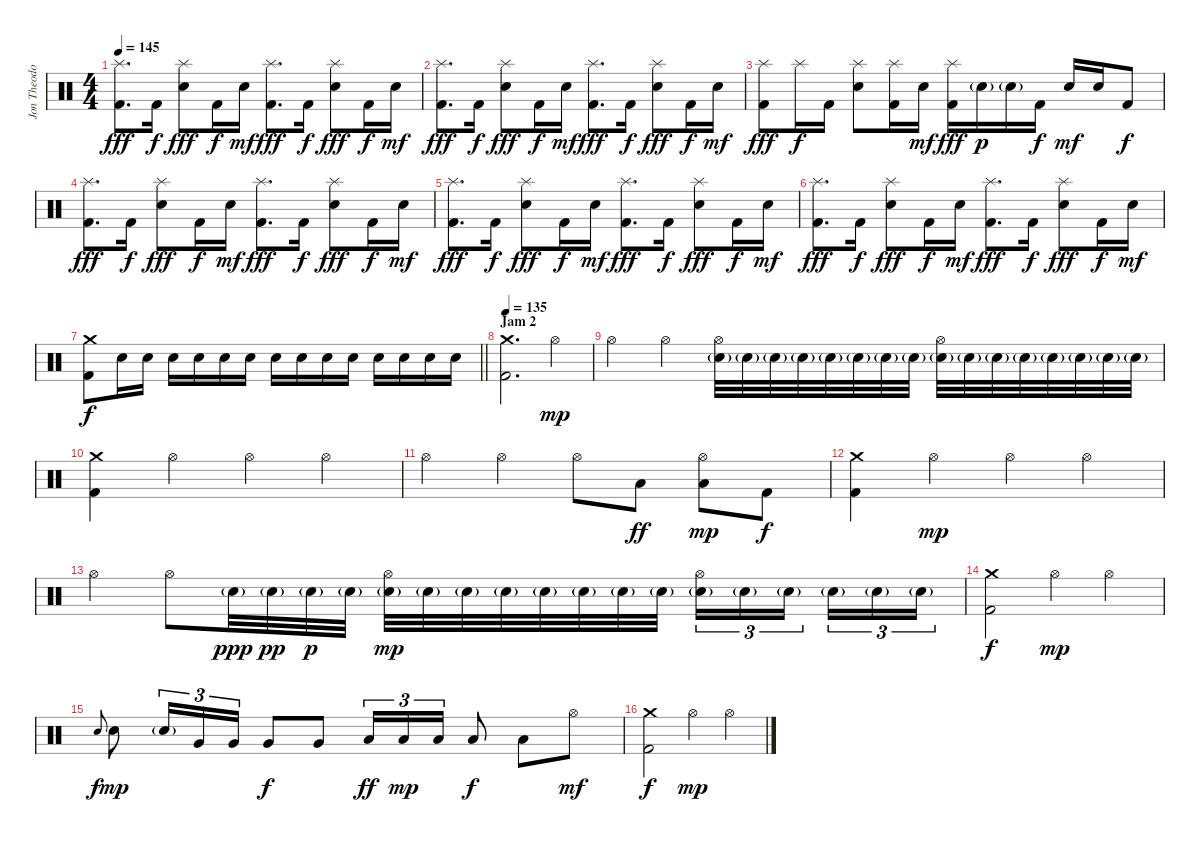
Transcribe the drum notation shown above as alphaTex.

\track ("Jon Theodore - Drums" "Jon Theodo") {instrument percussion}
\staff {score}
\articulation defaults
\ts (4 4)
\tempo 145
\clef neutral
\ks c
("Splash (hit)" "Kick (hit) 2").8{d dy fff} "Kick (hit) 2".16{dy f} ("Splash (hit)" "Electric Snare (hit)").8{dy fff} "Kick (hit) 2".16{dy f} "Electric Snare (hit)".16{dy mf} ("Splash (hit)" "Kick (hit) 2").8{d dy fff} "Kick (hit) 2".16{dy f} ("Splash (hit)" "Electric Snare (hit)").8{dy fff} "Kick (hit) 2".16{dy f} "Electric Snare (hit)".16{dy mf} |
("Splash (hit)" "Kick (hit) 2").8{d dy fff} "Kick (hit) 2".16{dy f} ("Splash (hit)" "Electric Snare (hit)").8{dy fff} "Kick (hit) 2".16{dy f} "Electric Snare (hit)".16{dy mf} ("Splash (hit)" "Kick (hit) 2").8{d dy fff} "Kick (hit) 2".16{dy f} ("Splash (hit)" "Electric Snare (hit)").8{dy fff} "Kick (hit) 2".16{dy f} "Electric Snare (hit)".16{dy mf} |
("Splash (hit)" "Kick (hit) 2").8{dy fff} "Splash (hit)".16{dy f} "Kick (hit) 2".16 ("Splash (hit)" "Electric Snare (hit)").8 ("Splash (hit)" "Kick (hit) 2").16 "Electric Snare (hit)".16{dy mf} ("Splash (hit)" "Kick (hit) 2").16{dy fff} "Electric Snare (hit)"{g}.16{dy p} "Electric Snare (hit)"{g}.16 "Kick (hit) 2".16{dy f} "Electric Snare (hit)".16{dy mf} "Electric Snare (hit)".16 "Kick (hit) 2".8{dy f} |
("Splash (hit)" "Kick (hit) 2").8{d dy fff} "Kick (hit) 2".16{dy f} ("Splash (hit)" "Electric Snare (hit)").8{dy fff} "Kick (hit) 2".16{dy f} "Electric Snare (hit)".16{dy mf} ("Splash (hit)" "Kick (hit) 2").8{d dy fff} "Kick (hit) 2".16{dy f} ("Splash (hit)" "Electric Snare (hit)").8{dy fff} "Kick (hit) 2".16{dy f} "Electric Snare (hit)".16{dy mf} |
("Splash (hit)" "Kick (hit) 2").8{d dy fff} "Kick (hit) 2".16{dy f} ("Splash (hit)" "Electric Snare (hit)").8{dy fff} "Kick (hit) 2".16{dy f} "Electric Snare (hit)".16{dy mf} ("Splash (hit)" "Kick (hit) 2").8{d dy fff} "Kick (hit) 2".16{dy f} ("Splash (hit)" "Electric Snare (hit)").8{dy fff} "Kick (hit) 2".16{dy f} "Electric Snare (hit)".16{dy mf} |
("Splash (hit)" "Kick (hit) 2").8{d dy fff} "Kick (hit) 2".16{dy f} ("Splash (hit)" "Electric Snare (hit)").8{dy fff} "Kick (hit) 2".16{dy f} "Electric Snare (hit)".16{dy mf} ("Splash (hit)" "Kick (hit) 2").8{d dy fff} "Kick (hit) 2".16{dy f} ("Splash (hit)" "Electric Snare (hit)").8{dy fff} "Kick (hit) 2".16{dy f} "Electric Snare (hit)".16{dy mf} |
\barLineRight lightlight
("Crash medium (hit)" "Kick (hit) 2").8{dy f} "Electric Snare (hit)".16 "Electric Snare (hit)".16 "Electric Snare (hit)".16 "Electric Snare (hit)".16 "Electric Snare (hit)".16 "Electric Snare (hit)".16 "Electric Snare (hit)".16 "Electric Snare (hit)".16 "Electric Snare (hit)".16 "Electric Snare (hit)".16 "Electric Snare (hit)".16 "Electric Snare (hit)".16 "Electric Snare (hit)".16 "Electric Snare (hit)".16 |
\section ("" "Jam 2")
\tempo 135
("Crash medium (hit)" "Kick (hit) 2").2{d} "Hi-Hat (open)".4{dy mp} |
"Hi-Hat (open)".4 "Hi-Hat (open)".4 ("Electric Snare (hit)"{g} "Hi-Hat (open)").32 "Electric Snare (hit)"{g}.32 "Electric Snare (hit)"{g}.32 "Electric Snare (hit)"{g}.32 "Electric Snare (hit)"{g}.32 "Electric Snare (hit)"{g}.32 "Electric Snare (hit)"{g}.32 "Electric Snare (hit)"{g}.32 ("Electric Snare (hit)"{g} "Hi-Hat (open)").32 "Electric Snare (hit)"{g}.32 "Electric Snare (hit)"{g}.32 "Electric Snare (hit)"{g}.32 "Electric Snare (hit)"{g}.32 "Electric Snare (hit)"{g}.32 "Electric Snare (hit)"{g}.32 "Electric Snare (hit)"{g}.32 |
("Crash medium (hit)" "Kick (hit) 2").4 "Hi-Hat (open)".4 "Hi-Hat (open)".4 "Hi-Hat (open)".4 |
"Hi-Hat (open)".4 "Hi-Hat (open)".4 "Hi-Hat (open)".8 "Low Tom (hit)".8{dy ff} ("Low Tom (hit)" "Hi-Hat (open)").8{dy mp} "Kick (hit) 2".8{dy f} |
("Crash medium (hit)" "Kick (hit) 2").4 "Hi-Hat (open)".4{dy mp} "Hi-Hat (open)".4 "Hi-Hat (open)".4 |
"Hi-Hat (open)".4 "Hi-Hat (open)".8 "Electric Snare (hit)"{g}.32{dy ppp} "Electric Snare (hit)"{g}.32{dy pp} "Electric Snare (hit)"{g}.32{dy p} "Electric Snare (hit)"{g}.32 ("Electric Snare (hit)"{g} "Hi-Hat (open)").32{dy mp} "Electric Snare (hit)"{g}.32 "Electric Snare (hit)"{g}.32 "Electric Snare (hit)"{g}.32 "Electric Snare (hit)"{g}.32 "Electric Snare (hit)"{g}.32 "Electric Snare (hit)"{g}.32 "Electric Snare (hit)"{g}.32 ("Electric Snare (hit)"{g} "Hi-Hat (open)").16{tu (3 2)} "Electric Snare (hit)"{g}.16{tu (3 2)} "Electric Snare (hit)"{g}.16{tu (3 2) beam splitsecondary} "Electric Snare (hit)"{g}.16{tu (3 2)} "Electric Snare (hit)"{g}.16{tu (3 2)} "Electric Snare (hit)"{g}.16{tu (3 2)} |
("Crash medium (hit)" "Kick (hit) 2").2{dy f} "Hi-Hat (open)".4{dy mp} "Hi-Hat (open)".4 |
"Electric Snare (hit)".8{gr onbeat dy f} "Electric Snare (hit)".8{dy mp} "Electric Snare (hit)"{g}.16{tu (3 2)} "Very Low Tom (hit)".16{tu (3 2)} "Very Low Tom (hit)".16{tu (3 2)} "Very Low Tom (hit)".8{dy f} "Very Low Tom (hit)".8 "Low Floor Tom (hit)".16{tu (3 2) dy ff} "Low Floor Tom (hit)".16{tu (3 2) dy mp} "Low Floor Tom (hit)".16{tu (3 2)} "Low Floor Tom (hit)".8{dy f} "Low Floor Tom (hit)".8 "Hi-Hat (open)".8{dy mf} |
("Crash medium (hit)" "Kick (hit) 2").2{dy f} "Hi-Hat (open)".4{dy mp} "Hi-Hat (open)".4
